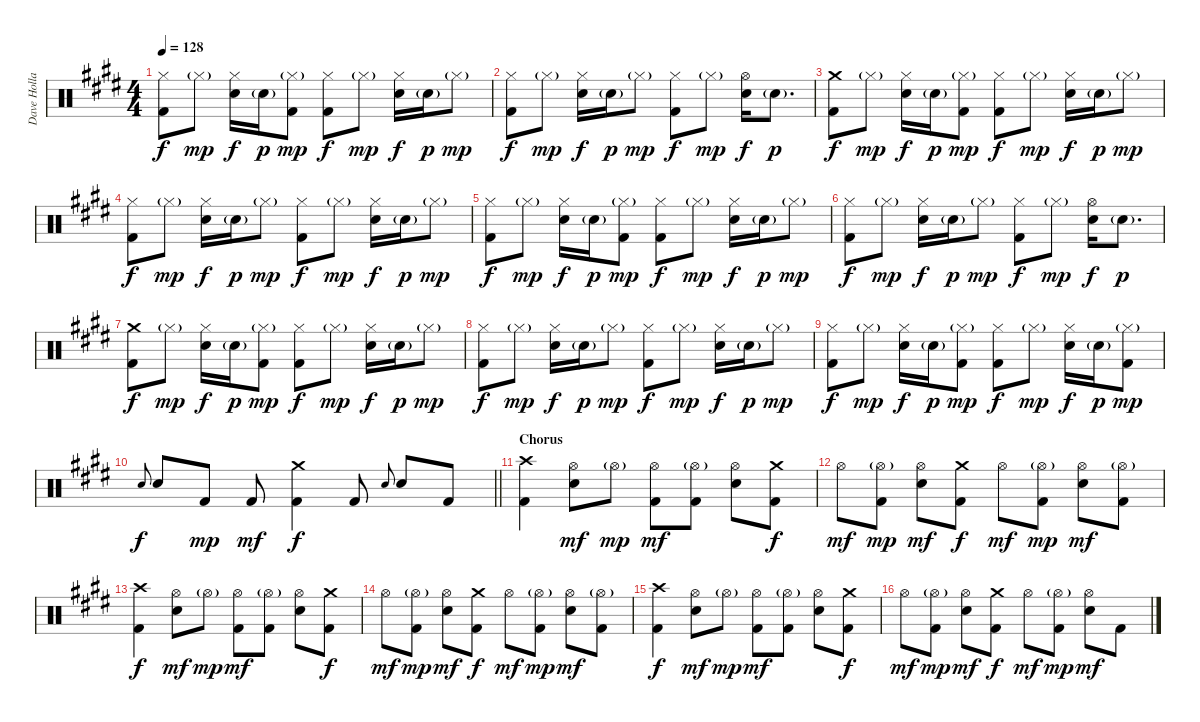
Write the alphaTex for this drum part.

\track ("Dave Holland" "Dave Holla") {instrument percussion}
\staff {score}
\articulation defaults
\ts (4 4)
\tempo 128
\clef neutral
\ks e
("Hi-Hat (closed)" "Kick (hit) 2").8{dy f} "Hi-Hat (closed)"{g}.8{dy mp} ("Hi-Hat (closed)" "Electric Snare (hit)").16{dy f} "Electric Snare (hit)"{g}.16{dy p} ("Hi-Hat (closed)"{g} "Kick (hit) 2").8{dy mp} ("Hi-Hat (closed)" "Kick (hit) 2").8{dy f} "Hi-Hat (closed)"{g}.8{dy mp} ("Hi-Hat (closed)" "Electric Snare (hit)").16{dy f} "Electric Snare (hit)"{g}.16{dy p} "Hi-Hat (closed)"{g}.8{dy mp} |
("Hi-Hat (closed)" "Kick (hit) 2").8{dy f} "Hi-Hat (closed)"{g}.8{dy mp} ("Hi-Hat (closed)" "Electric Snare (hit)").16{dy f} "Electric Snare (hit)"{g}.16{dy p} "Hi-Hat (closed)"{g}.8{dy mp} ("Hi-Hat (closed)" "Kick (hit) 2").8{dy f} "Hi-Hat (closed)"{g}.8{dy mp} ("Hi-Hat (open)" "Electric Snare (hit)").16{dy f} "Electric Snare (hit)"{g}.8{d dy p} |
("Crash medium (hit)" "Kick (hit) 2").8{dy f} "Hi-Hat (closed)"{g}.8{dy mp} ("Hi-Hat (closed)" "Electric Snare (hit)").16{dy f} "Electric Snare (hit)"{g}.16{dy p} ("Hi-Hat (closed)"{g} "Kick (hit) 2").8{dy mp} ("Hi-Hat (closed)" "Kick (hit) 2").8{dy f} "Hi-Hat (closed)"{g}.8{dy mp} ("Hi-Hat (closed)" "Electric Snare (hit)").16{dy f} "Electric Snare (hit)"{g}.16{dy p} "Hi-Hat (closed)"{g}.8{dy mp} |
("Hi-Hat (closed)" "Kick (hit) 2").8{dy f} "Hi-Hat (closed)"{g}.8{dy mp} ("Hi-Hat (closed)" "Electric Snare (hit)").16{dy f} "Electric Snare (hit)"{g}.16{dy p} "Hi-Hat (closed)"{g}.8{dy mp} ("Hi-Hat (closed)" "Kick (hit) 2").8{dy f} "Hi-Hat (closed)"{g}.8{dy mp} ("Hi-Hat (closed)" "Electric Snare (hit)").16{dy f} "Electric Snare (hit)"{g}.16{dy p} "Hi-Hat (closed)"{g}.8{dy mp} |
("Hi-Hat (closed)" "Kick (hit) 2").8{dy f} "Hi-Hat (closed)"{g}.8{dy mp} ("Hi-Hat (closed)" "Electric Snare (hit)").16{dy f} "Electric Snare (hit)"{g}.16{dy p} ("Hi-Hat (closed)"{g} "Kick (hit) 2").8{dy mp} ("Hi-Hat (closed)" "Kick (hit) 2").8{dy f} "Hi-Hat (closed)"{g}.8{dy mp} ("Hi-Hat (closed)" "Electric Snare (hit)").16{dy f} "Electric Snare (hit)"{g}.16{dy p} "Hi-Hat (closed)"{g}.8{dy mp} |
("Hi-Hat (closed)" "Kick (hit) 2").8{dy f} "Hi-Hat (closed)"{g}.8{dy mp} ("Hi-Hat (closed)" "Electric Snare (hit)").16{dy f} "Electric Snare (hit)"{g}.16{dy p} "Hi-Hat (closed)"{g}.8{dy mp} ("Hi-Hat (closed)" "Kick (hit) 2").8{dy f} "Hi-Hat (closed)"{g}.8{dy mp} ("Hi-Hat (open)" "Electric Snare (hit)").16{dy f} "Electric Snare (hit)"{g}.8{d dy p} |
("Crash medium (hit)" "Kick (hit) 2").8{dy f} "Hi-Hat (closed)"{g}.8{dy mp} ("Hi-Hat (closed)" "Electric Snare (hit)").16{dy f} "Electric Snare (hit)"{g}.16{dy p} ("Hi-Hat (closed)"{g} "Kick (hit) 2").8{dy mp} ("Hi-Hat (closed)" "Kick (hit) 2").8{dy f} "Hi-Hat (closed)"{g}.8{dy mp} ("Hi-Hat (closed)" "Electric Snare (hit)").16{dy f} "Electric Snare (hit)"{g}.16{dy p} "Hi-Hat (closed)"{g}.8{dy mp} |
("Hi-Hat (closed)" "Kick (hit) 2").8{dy f} "Hi-Hat (closed)"{g}.8{dy mp} ("Hi-Hat (closed)" "Electric Snare (hit)").16{dy f} "Electric Snare (hit)"{g}.16{dy p} "Hi-Hat (closed)"{g}.8{dy mp} ("Hi-Hat (closed)" "Kick (hit) 2").8{dy f} "Hi-Hat (closed)"{g}.8{dy mp} ("Hi-Hat (closed)" "Electric Snare (hit)").16{dy f} "Electric Snare (hit)"{g}.16{dy p} "Hi-Hat (closed)"{g}.8{dy mp} |
("Hi-Hat (closed)" "Kick (hit) 2").8{dy f} "Hi-Hat (closed)"{g}.8{dy mp} ("Hi-Hat (closed)" "Electric Snare (hit)").16{dy f} "Electric Snare (hit)"{g}.16{dy p} ("Hi-Hat (closed)"{g} "Kick (hit) 2").8{dy mp} ("Hi-Hat (closed)" "Kick (hit) 2").8{dy f} "Hi-Hat (closed)"{g}.8{dy mp} ("Hi-Hat (closed)" "Electric Snare (hit)").16{dy f} "Electric Snare (hit)"{g}.16{dy p} ("Hi-Hat (closed)"{g} "Kick (hit) 2").8{dy mp} |
\barLineRight lightlight "Electric Snare (hit)".8{gr onbeat dy f} "Electric Snare (hit)".8 "Kick (hit) 2".8{dy mp} "Kick (hit) 2".8{dy mf}
("Crash medium (hit)" "Kick (hit) 2").4{dy f} "Kick (hit) 2".8 "Electric Snare (hit)".8{gr onbeat} "Electric Snare (hit)".8 "Kick (hit) 2".8 |
\section ("" "Chorus")
("Crash high (hit)" "Kick (hit) 2").4 ("Hi-Hat (open)" "Electric Snare (hit)").8{dy mf} "Hi-Hat (open)"{g}.8{dy mp} ("Hi-Hat (open)" "Kick (hit) 2").8{dy mf} ("Hi-Hat (open)"{g} "Kick (hit) 2").8 ("Hi-Hat (open)" "Electric Snare (hit)").8 ("Crash medium (hit)" "Kick (hit) 2").8{dy f} |
"Hi-Hat (open)".8{dy mf} ("Hi-Hat (open)"{g} "Kick (hit) 2").8{dy mp} ("Hi-Hat (open)" "Electric Snare (hit)").8{dy mf} ("Crash medium (hit)" "Kick (hit) 2").8{dy f} "Hi-Hat (open)".8{dy mf} ("Hi-Hat (open)"{g} "Kick (hit) 2").8{dy mp} ("Hi-Hat (open)" "Electric Snare (hit)").8{dy mf} ("Hi-Hat (open)"{g} "Kick (hit) 2").8 |
("Crash high (hit)" "Kick (hit) 2").4{dy f} ("Hi-Hat (open)" "Electric Snare (hit)").8{dy mf} "Hi-Hat (open)"{g}.8{dy mp} ("Hi-Hat (open)" "Kick (hit) 2").8{dy mf} ("Hi-Hat (open)"{g} "Kick (hit) 2").8 ("Hi-Hat (open)" "Electric Snare (hit)").8 ("Crash medium (hit)" "Kick (hit) 2").8{dy f} |
"Hi-Hat (open)".8{dy mf} ("Hi-Hat (open)"{g} "Kick (hit) 2").8{dy mp} ("Hi-Hat (open)" "Electric Snare (hit)").8{dy mf} ("Crash medium (hit)" "Kick (hit) 2").8{dy f} "Hi-Hat (open)".8{dy mf} ("Hi-Hat (open)"{g} "Kick (hit) 2").8{dy mp} ("Hi-Hat (open)" "Electric Snare (hit)").8{dy mf} ("Hi-Hat (open)"{g} "Kick (hit) 2").8 |
("Crash high (hit)" "Kick (hit) 2").4{dy f} ("Hi-Hat (open)" "Electric Snare (hit)").8{dy mf} "Hi-Hat (open)"{g}.8{dy mp} ("Hi-Hat (open)" "Kick (hit) 2").8{dy mf} ("Hi-Hat (open)"{g} "Kick (hit) 2").8 ("Hi-Hat (open)" "Electric Snare (hit)").8 ("Crash medium (hit)" "Kick (hit) 2").8{dy f} |
"Hi-Hat (open)".8{dy mf} ("Hi-Hat (open)"{g} "Kick (hit) 2").8{dy mp} ("Hi-Hat (open)" "Electric Snare (hit)").8{dy mf} ("Crash medium (hit)" "Kick (hit) 2").8{dy f} "Hi-Hat (open)".8{dy mf} ("Hi-Hat (open)"{g} "Kick (hit) 2").8{dy mp} ("Hi-Hat (open)" "Electric Snare (hit)").8{dy mf} "Kick (hit) 2".8
